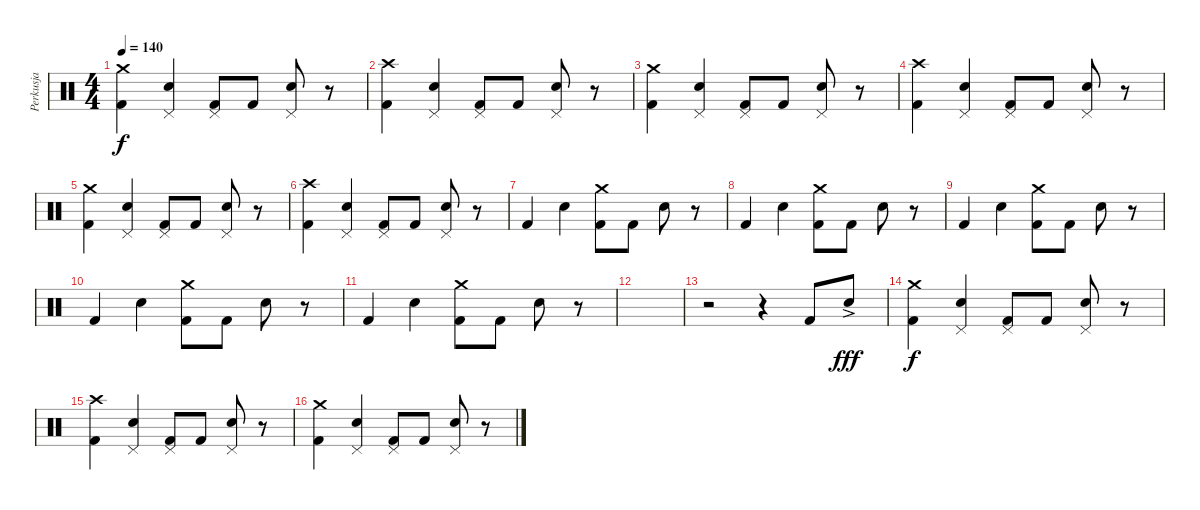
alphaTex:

\track ("Perkusja" "Perkusja") {instrument percussion}
\staff {score}
\articulation defaults
\ts (4 4)
\tempo 140
\clef neutral
\ks c
("Crash medium (hit)" "Kick (hit) 2").4{dy f} ("Pedal Hi-Hat (hit)" "Snare (hit) 2").4 ("Pedal Hi-Hat (hit)" "Kick (hit) 2").8 "Kick (hit) 2".8 ("Pedal Hi-Hat (hit)" "Snare (hit) 2").8 r.8 |
("Crash high (hit)" "Kick (hit) 2").4 ("Pedal Hi-Hat (hit)" "Snare (hit) 2").4 ("Pedal Hi-Hat (hit)" "Kick (hit) 2").8 "Kick (hit) 2".8 ("Pedal Hi-Hat (hit)" "Snare (hit) 2").8 r.8 |
("Crash medium (hit)" "Kick (hit) 2").4 ("Pedal Hi-Hat (hit)" "Snare (hit) 2").4 ("Pedal Hi-Hat (hit)" "Kick (hit) 2").8 "Kick (hit) 2".8 ("Pedal Hi-Hat (hit)" "Snare (hit) 2").8 r.8 |
("Crash high (hit)" "Kick (hit) 2").4 ("Pedal Hi-Hat (hit)" "Snare (hit) 2").4 ("Pedal Hi-Hat (hit)" "Kick (hit) 2").8 "Kick (hit) 2".8 ("Pedal Hi-Hat (hit)" "Snare (hit) 2").8 r.8 |
("Crash medium (hit)" "Kick (hit) 2").4 ("Pedal Hi-Hat (hit)" "Snare (hit) 2").4 ("Pedal Hi-Hat (hit)" "Kick (hit) 2").8 "Kick (hit) 2".8 ("Pedal Hi-Hat (hit)" "Snare (hit) 2").8 r.8 |
("Crash high (hit)" "Kick (hit) 2").4 ("Pedal Hi-Hat (hit)" "Snare (hit) 2").4 ("Pedal Hi-Hat (hit)" "Kick (hit) 2").8 "Kick (hit) 2".8 ("Pedal Hi-Hat (hit)" "Snare (hit) 2").8 r.8 |
"Kick (hit) 2".4 "Snare (hit) 2".4 ("Crash medium (hit)" "Kick (hit) 2").8 "Kick (hit) 2".8 "Snare (hit) 2".8 r.8 |
"Kick (hit) 2".4 "Snare (hit) 2".4 ("Crash medium (hit)" "Kick (hit) 2").8 "Kick (hit) 2".8 "Snare (hit) 2".8 r.8 |
"Kick (hit) 2".4 "Snare (hit) 2".4 ("Crash medium (hit)" "Kick (hit) 2").8 "Kick (hit) 2".8 "Snare (hit) 2".8 r.8 |
"Kick (hit) 2".4 "Snare (hit) 2".4 ("Crash medium (hit)" "Kick (hit) 2").8 "Kick (hit) 2".8 "Snare (hit) 2".8 r.8 |
"Kick (hit) 2".4 "Snare (hit) 2".4 ("Crash medium (hit)" "Kick (hit) 2").8 "Kick (hit) 2".8 "Snare (hit) 2".8 r.8 |
|
r.2 r.4 "Kick (hit) 2".8 "Snare (hit) 2"{ac}.8{dy fff} |
("Crash medium (hit)" "Kick (hit) 2").4{dy f} ("Pedal Hi-Hat (hit)" "Snare (hit) 2").4 ("Pedal Hi-Hat (hit)" "Kick (hit) 2").8 "Kick (hit) 2".8 ("Pedal Hi-Hat (hit)" "Snare (hit) 2").8 r.8 |
("Crash high (hit)" "Kick (hit) 2").4 ("Pedal Hi-Hat (hit)" "Snare (hit) 2").4 ("Pedal Hi-Hat (hit)" "Kick (hit) 2").8 "Kick (hit) 2".8 ("Pedal Hi-Hat (hit)" "Snare (hit) 2").8 r.8 |
("Crash medium (hit)" "Kick (hit) 2").4 ("Pedal Hi-Hat (hit)" "Snare (hit) 2").4 ("Pedal Hi-Hat (hit)" "Kick (hit) 2").8 "Kick (hit) 2".8 ("Pedal Hi-Hat (hit)" "Snare (hit) 2").8 r.8
